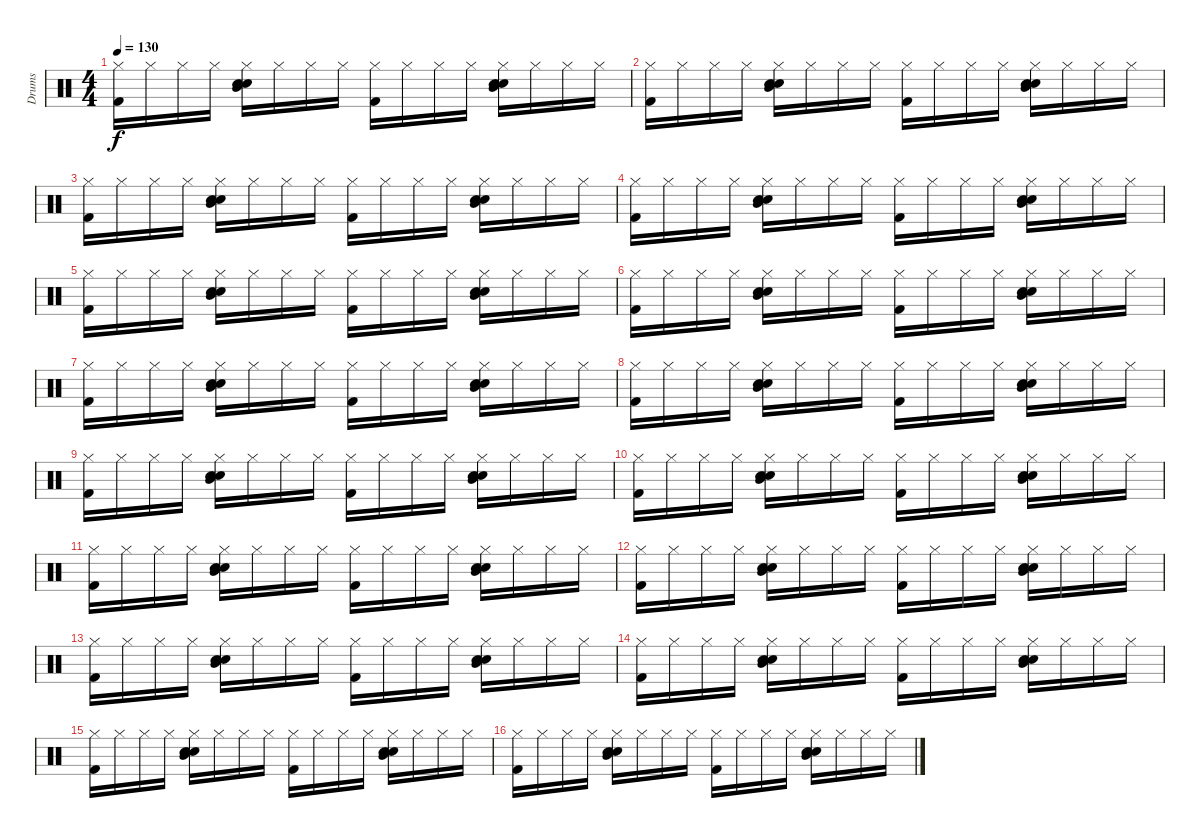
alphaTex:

\track ("Drums" "Drums") {instrument percussion}
\staff {score}
\articulation defaults
\ts (4 4)
\tempo 130
\clef neutral
\ks c
("Hi-Hat (closed)" "Kick (hit) 2").16{dy f} "Hi-Hat (closed)".16 "Hi-Hat (closed)".16 "Hi-Hat (closed)".16 ("Hand Clap (hit)" "Hi-Hat (closed)" "Electric Snare (hit)" "Mid Tom (hit)").16 "Hi-Hat (closed)".16 "Hi-Hat (closed)".16 "Hi-Hat (closed)".16 ("Hi-Hat (closed)" "Kick (hit) 2").16 "Hi-Hat (closed)".16 "Hi-Hat (closed)".16 "Hi-Hat (closed)".16 ("Hand Clap (hit)" "Hi-Hat (closed)" "Electric Snare (hit)" "Mid Tom (hit)").16 "Hi-Hat (closed)".16 "Hi-Hat (closed)".16 "Hi-Hat (closed)".16 |
("Hi-Hat (closed)" "Kick (hit) 2").16 "Hi-Hat (closed)".16 "Hi-Hat (closed)".16 "Hi-Hat (closed)".16 ("Hand Clap (hit)" "Hi-Hat (closed)" "Electric Snare (hit)" "Mid Tom (hit)").16 "Hi-Hat (closed)".16 "Hi-Hat (closed)".16 "Hi-Hat (closed)".16 ("Hi-Hat (closed)" "Kick (hit) 2").16 "Hi-Hat (closed)".16 "Hi-Hat (closed)".16 "Hi-Hat (closed)".16 ("Hand Clap (hit)" "Hi-Hat (closed)" "Electric Snare (hit)" "Mid Tom (hit)").16 "Hi-Hat (closed)".16 "Hi-Hat (closed)".16 "Hi-Hat (closed)".16 |
("Hi-Hat (closed)" "Kick (hit) 2").16 "Hi-Hat (closed)".16 "Hi-Hat (closed)".16 "Hi-Hat (closed)".16 ("Hand Clap (hit)" "Hi-Hat (closed)" "Electric Snare (hit)" "Mid Tom (hit)").16 "Hi-Hat (closed)".16 "Hi-Hat (closed)".16 "Hi-Hat (closed)".16 ("Hi-Hat (closed)" "Kick (hit) 2").16 "Hi-Hat (closed)".16 "Hi-Hat (closed)".16 "Hi-Hat (closed)".16 ("Hand Clap (hit)" "Hi-Hat (closed)" "Electric Snare (hit)" "Mid Tom (hit)").16 "Hi-Hat (closed)".16 "Hi-Hat (closed)".16 "Hi-Hat (closed)".16 |
("Hi-Hat (closed)" "Kick (hit) 2").16 "Hi-Hat (closed)".16 "Hi-Hat (closed)".16 "Hi-Hat (closed)".16 ("Hand Clap (hit)" "Hi-Hat (closed)" "Electric Snare (hit)" "Mid Tom (hit)").16 "Hi-Hat (closed)".16 "Hi-Hat (closed)".16 "Hi-Hat (closed)".16 ("Hi-Hat (closed)" "Kick (hit) 2").16 "Hi-Hat (closed)".16 "Hi-Hat (closed)".16 "Hi-Hat (closed)".16 ("Hand Clap (hit)" "Hi-Hat (closed)" "Electric Snare (hit)" "Mid Tom (hit)").16 "Hi-Hat (closed)".16 "Hi-Hat (closed)".16 "Hi-Hat (closed)".16 |
("Hi-Hat (closed)" "Kick (hit) 2").16 "Hi-Hat (closed)".16 "Hi-Hat (closed)".16 "Hi-Hat (closed)".16 ("Hand Clap (hit)" "Hi-Hat (closed)" "Electric Snare (hit)" "Mid Tom (hit)").16 "Hi-Hat (closed)".16 "Hi-Hat (closed)".16 "Hi-Hat (closed)".16 ("Hi-Hat (closed)" "Kick (hit) 2").16 "Hi-Hat (closed)".16 "Hi-Hat (closed)".16 "Hi-Hat (closed)".16 ("Hand Clap (hit)" "Hi-Hat (closed)" "Electric Snare (hit)" "Mid Tom (hit)").16 "Hi-Hat (closed)".16 "Hi-Hat (closed)".16 "Hi-Hat (closed)".16 |
("Hi-Hat (closed)" "Kick (hit) 2").16 "Hi-Hat (closed)".16 "Hi-Hat (closed)".16 "Hi-Hat (closed)".16 ("Hand Clap (hit)" "Hi-Hat (closed)" "Electric Snare (hit)" "Mid Tom (hit)").16 "Hi-Hat (closed)".16 "Hi-Hat (closed)".16 "Hi-Hat (closed)".16 ("Hi-Hat (closed)" "Kick (hit) 2").16 "Hi-Hat (closed)".16 "Hi-Hat (closed)".16 "Hi-Hat (closed)".16 ("Hand Clap (hit)" "Hi-Hat (closed)" "Electric Snare (hit)" "Mid Tom (hit)").16 "Hi-Hat (closed)".16 "Hi-Hat (closed)".16 "Hi-Hat (closed)".16 |
("Hi-Hat (closed)" "Kick (hit) 2").16 "Hi-Hat (closed)".16 "Hi-Hat (closed)".16 "Hi-Hat (closed)".16 ("Hand Clap (hit)" "Hi-Hat (closed)" "Electric Snare (hit)" "Mid Tom (hit)").16 "Hi-Hat (closed)".16 "Hi-Hat (closed)".16 "Hi-Hat (closed)".16 ("Hi-Hat (closed)" "Kick (hit) 2").16 "Hi-Hat (closed)".16 "Hi-Hat (closed)".16 "Hi-Hat (closed)".16 ("Hand Clap (hit)" "Hi-Hat (closed)" "Electric Snare (hit)" "Mid Tom (hit)").16 "Hi-Hat (closed)".16 "Hi-Hat (closed)".16 "Hi-Hat (closed)".16 |
("Hi-Hat (closed)" "Kick (hit) 2").16 "Hi-Hat (closed)".16 "Hi-Hat (closed)".16 "Hi-Hat (closed)".16 ("Hand Clap (hit)" "Hi-Hat (closed)" "Electric Snare (hit)" "Mid Tom (hit)").16 "Hi-Hat (closed)".16 "Hi-Hat (closed)".16 "Hi-Hat (closed)".16 ("Hi-Hat (closed)" "Kick (hit) 2").16 "Hi-Hat (closed)".16 "Hi-Hat (closed)".16 "Hi-Hat (closed)".16 ("Hand Clap (hit)" "Hi-Hat (closed)" "Electric Snare (hit)" "Mid Tom (hit)").16 "Hi-Hat (closed)".16 "Hi-Hat (closed)".16 "Hi-Hat (closed)".16 |
("Hi-Hat (closed)" "Kick (hit) 2").16 "Hi-Hat (closed)".16 "Hi-Hat (closed)".16 "Hi-Hat (closed)".16 ("Hand Clap (hit)" "Hi-Hat (closed)" "Electric Snare (hit)" "Mid Tom (hit)").16 "Hi-Hat (closed)".16 "Hi-Hat (closed)".16 "Hi-Hat (closed)".16 ("Hi-Hat (closed)" "Kick (hit) 2").16 "Hi-Hat (closed)".16 "Hi-Hat (closed)".16 "Hi-Hat (closed)".16 ("Hand Clap (hit)" "Hi-Hat (closed)" "Electric Snare (hit)" "Mid Tom (hit)").16 "Hi-Hat (closed)".16 "Hi-Hat (closed)".16 "Hi-Hat (closed)".16 |
("Hi-Hat (closed)" "Kick (hit) 2").16 "Hi-Hat (closed)".16 "Hi-Hat (closed)".16 "Hi-Hat (closed)".16 ("Hand Clap (hit)" "Hi-Hat (closed)" "Electric Snare (hit)" "Mid Tom (hit)").16 "Hi-Hat (closed)".16 "Hi-Hat (closed)".16 "Hi-Hat (closed)".16 ("Hi-Hat (closed)" "Kick (hit) 2").16 "Hi-Hat (closed)".16 "Hi-Hat (closed)".16 "Hi-Hat (closed)".16 ("Hand Clap (hit)" "Hi-Hat (closed)" "Electric Snare (hit)" "Mid Tom (hit)").16 "Hi-Hat (closed)".16 "Hi-Hat (closed)".16 "Hi-Hat (closed)".16 |
("Hi-Hat (closed)" "Kick (hit) 2").16 "Hi-Hat (closed)".16 "Hi-Hat (closed)".16 "Hi-Hat (closed)".16 ("Hand Clap (hit)" "Hi-Hat (closed)" "Electric Snare (hit)" "Mid Tom (hit)").16 "Hi-Hat (closed)".16 "Hi-Hat (closed)".16 "Hi-Hat (closed)".16 ("Hi-Hat (closed)" "Kick (hit) 2").16 "Hi-Hat (closed)".16 "Hi-Hat (closed)".16 "Hi-Hat (closed)".16 ("Hand Clap (hit)" "Hi-Hat (closed)" "Electric Snare (hit)" "Mid Tom (hit)").16 "Hi-Hat (closed)".16 "Hi-Hat (closed)".16 "Hi-Hat (closed)".16 |
("Hi-Hat (closed)" "Kick (hit) 2").16 "Hi-Hat (closed)".16 "Hi-Hat (closed)".16 "Hi-Hat (closed)".16 ("Hand Clap (hit)" "Hi-Hat (closed)" "Electric Snare (hit)" "Mid Tom (hit)").16 "Hi-Hat (closed)".16 "Hi-Hat (closed)".16 "Hi-Hat (closed)".16 ("Hi-Hat (closed)" "Kick (hit) 2").16 "Hi-Hat (closed)".16 "Hi-Hat (closed)".16 "Hi-Hat (closed)".16 ("Hand Clap (hit)" "Hi-Hat (closed)" "Electric Snare (hit)" "Mid Tom (hit)").16 "Hi-Hat (closed)".16 "Hi-Hat (closed)".16 "Hi-Hat (closed)".16 |
("Hi-Hat (closed)" "Kick (hit) 2").16 "Hi-Hat (closed)".16 "Hi-Hat (closed)".16 "Hi-Hat (closed)".16 ("Hand Clap (hit)" "Hi-Hat (closed)" "Electric Snare (hit)" "Mid Tom (hit)").16 "Hi-Hat (closed)".16 "Hi-Hat (closed)".16 "Hi-Hat (closed)".16 ("Hi-Hat (closed)" "Kick (hit) 2").16 "Hi-Hat (closed)".16 "Hi-Hat (closed)".16 "Hi-Hat (closed)".16 ("Hand Clap (hit)" "Hi-Hat (closed)" "Electric Snare (hit)" "Mid Tom (hit)").16 "Hi-Hat (closed)".16 "Hi-Hat (closed)".16 "Hi-Hat (closed)".16 |
("Hi-Hat (closed)" "Kick (hit) 2").16 "Hi-Hat (closed)".16 "Hi-Hat (closed)".16 "Hi-Hat (closed)".16 ("Hand Clap (hit)" "Hi-Hat (closed)" "Electric Snare (hit)" "Mid Tom (hit)").16 "Hi-Hat (closed)".16 "Hi-Hat (closed)".16 "Hi-Hat (closed)".16 ("Hi-Hat (closed)" "Kick (hit) 2").16 "Hi-Hat (closed)".16 "Hi-Hat (closed)".16 "Hi-Hat (closed)".16 ("Hand Clap (hit)" "Hi-Hat (closed)" "Electric Snare (hit)" "Mid Tom (hit)").16 "Hi-Hat (closed)".16 "Hi-Hat (closed)".16 "Hi-Hat (closed)".16 |
("Hi-Hat (closed)" "Kick (hit) 2").16 "Hi-Hat (closed)".16 "Hi-Hat (closed)".16 "Hi-Hat (closed)".16 ("Hand Clap (hit)" "Hi-Hat (closed)" "Electric Snare (hit)" "Mid Tom (hit)").16 "Hi-Hat (closed)".16 "Hi-Hat (closed)".16 "Hi-Hat (closed)".16 ("Hi-Hat (closed)" "Kick (hit) 2").16 "Hi-Hat (closed)".16 "Hi-Hat (closed)".16 "Hi-Hat (closed)".16 ("Hand Clap (hit)" "Hi-Hat (closed)" "Electric Snare (hit)" "Mid Tom (hit)").16 "Hi-Hat (closed)".16 "Hi-Hat (closed)".16 "Hi-Hat (closed)".16 |
("Hi-Hat (closed)" "Kick (hit) 2").16 "Hi-Hat (closed)".16 "Hi-Hat (closed)".16 "Hi-Hat (closed)".16 ("Hand Clap (hit)" "Hi-Hat (closed)" "Electric Snare (hit)" "Mid Tom (hit)").16 "Hi-Hat (closed)".16 "Hi-Hat (closed)".16 "Hi-Hat (closed)".16 ("Hi-Hat (closed)" "Kick (hit) 2").16 "Hi-Hat (closed)".16 "Hi-Hat (closed)".16 "Hi-Hat (closed)".16 ("Hand Clap (hit)" "Hi-Hat (closed)" "Electric Snare (hit)" "Mid Tom (hit)").16 "Hi-Hat (closed)".16 "Hi-Hat (closed)".16 "Hi-Hat (closed)".16
